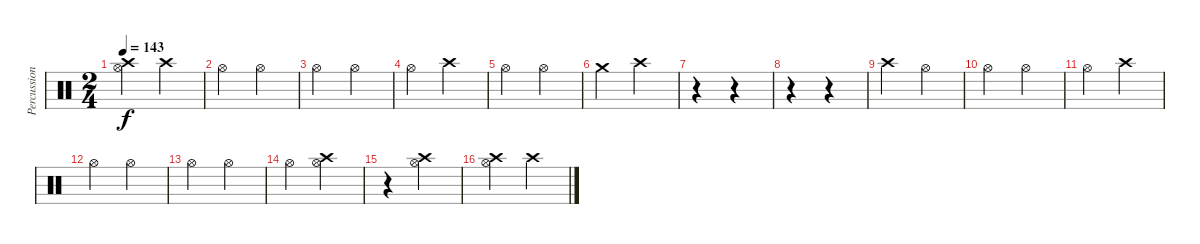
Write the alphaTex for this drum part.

\track ("Percussion2" "Percussion") {instrument percussion}
\staff {score}
\articulation defaults
\ts (2 4)
\tempo 143
\clef neutral
\ks c
("Crash high (hit)" "Hi-Hat (open)").4{dy f} "Crash high (hit)".4 |
"Hi-Hat (open)".4 "Hi-Hat (open)".4 |
"Hi-Hat (open)".4 "Hi-Hat (open)".4 |
"Hi-Hat (open)".4 "Crash high (hit)".4 |
"Hi-Hat (open)".4 "Hi-Hat (open)".4 |
"Crash medium (hit)".4 "Crash high (hit)".4 |
r.4 r.4 |
r.4 r.4 |
"Crash high (hit)".4 "Hi-Hat (open)".4 |
"Hi-Hat (open)".4 "Hi-Hat (open)".4 |
"Hi-Hat (open)".4 "Crash high (hit)".4 |
"Hi-Hat (open)".4 "Hi-Hat (open)".4 |
"Hi-Hat (open)".4 "Hi-Hat (open)".4 |
"Hi-Hat (open)".4 ("Crash high (hit)" "Hi-Hat (open)").4 |
r.4 ("Crash high (hit)" "Hi-Hat (open)").4 |
("Crash high (hit)" "Hi-Hat (open)").4 "Crash high (hit)".4
